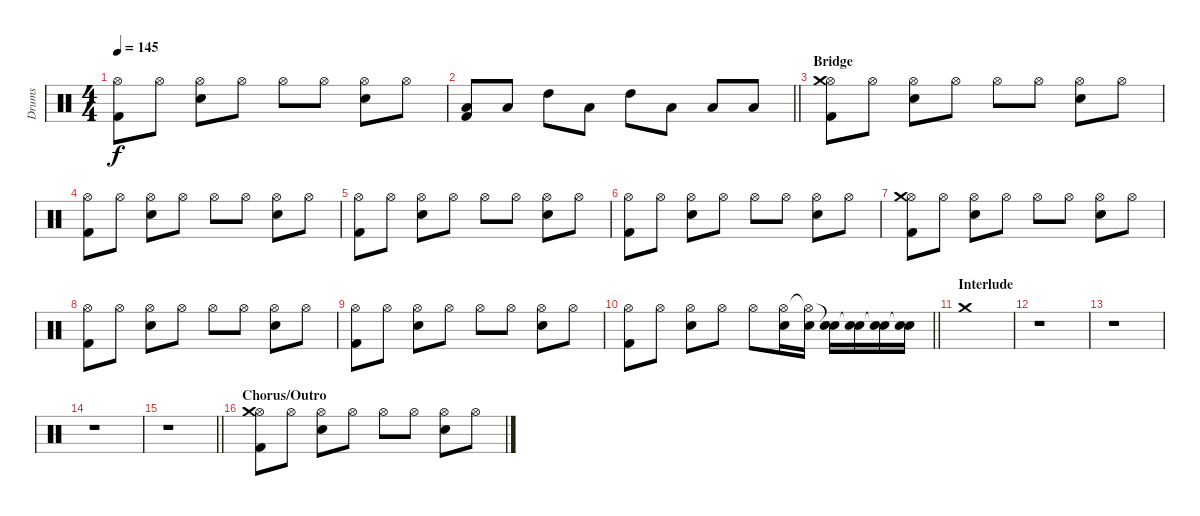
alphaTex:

\track ("Drums" "Drums") {instrument percussion}
\staff {score}
\articulation defaults
\ts (4 4)
\tempo 145
\clef neutral
\ks c
("Hi-Hat (open)" "Kick (hit) 2").8{dy f} "Hi-Hat (open)".8 ("Hi-Hat (open)" "Electric Snare (hit)").8 "Hi-Hat (open)".8 "Hi-Hat (open)".8 "Hi-Hat (open)".8 ("Hi-Hat (open)" "Electric Snare (hit)").8 "Hi-Hat (open)".8 |
\barLineRight lightlight
("Low Tom (hit)" "Kick (hit) 2").8 "Low Tom (hit)".8 "High Tom (hit)".8 "Low Tom (hit)".8 "High Tom (hit)".8 "Low Tom (hit)".8 "Low Tom (hit)".8 "Low Tom (hit)".8 |
\section ("" "Bridge")
("Hi-Hat (open)" "Kick (hit) 2" "Crash medium (hit)").8 "Hi-Hat (open)".8 ("Hi-Hat (open)" "Electric Snare (hit)").8 "Hi-Hat (open)".8 "Hi-Hat (open)".8 "Hi-Hat (open)".8 ("Hi-Hat (open)" "Electric Snare (hit)").8 "Hi-Hat (open)".8 |
("Hi-Hat (open)" "Kick (hit) 2").8 "Hi-Hat (open)".8 ("Hi-Hat (open)" "Electric Snare (hit)").8 "Hi-Hat (open)".8 "Hi-Hat (open)".8 "Hi-Hat (open)".8 ("Hi-Hat (open)" "Electric Snare (hit)").8 "Hi-Hat (open)".8 |
("Hi-Hat (open)" "Kick (hit) 2").8 "Hi-Hat (open)".8 ("Hi-Hat (open)" "Electric Snare (hit)").8 "Hi-Hat (open)".8 "Hi-Hat (open)".8 "Hi-Hat (open)".8 ("Hi-Hat (open)" "Electric Snare (hit)").8 "Hi-Hat (open)".8 |
("Hi-Hat (open)" "Kick (hit) 2").8 "Hi-Hat (open)".8 ("Hi-Hat (open)" "Electric Snare (hit)").8 "Hi-Hat (open)".8 "Hi-Hat (open)".8 "Hi-Hat (open)".8 ("Hi-Hat (open)" "Electric Snare (hit)").8 "Hi-Hat (open)".8 |
("Hi-Hat (open)" "Kick (hit) 2" "Crash medium (hit)").8 "Hi-Hat (open)".8 ("Hi-Hat (open)" "Electric Snare (hit)").8 "Hi-Hat (open)".8 "Hi-Hat (open)".8 "Hi-Hat (open)".8 ("Hi-Hat (open)" "Electric Snare (hit)").8 "Hi-Hat (open)".8 |
("Hi-Hat (open)" "Kick (hit) 2").8 "Hi-Hat (open)".8 ("Hi-Hat (open)" "Electric Snare (hit)").8 "Hi-Hat (open)".8 "Hi-Hat (open)".8 "Hi-Hat (open)".8 ("Hi-Hat (open)" "Electric Snare (hit)").8 "Hi-Hat (open)".8 |
("Hi-Hat (open)" "Kick (hit) 2").8 "Hi-Hat (open)".8 ("Hi-Hat (open)" "Electric Snare (hit)").8 "Hi-Hat (open)".8 "Hi-Hat (open)".8 "Hi-Hat (open)".8 ("Hi-Hat (open)" "Electric Snare (hit)").8 "Hi-Hat (open)".8 |
\barLineRight lightlight
("Hi-Hat (open)" "Kick (hit) 2").8 "Hi-Hat (open)".8 ("Hi-Hat (open)" "Electric Snare (hit)").8 "Hi-Hat (open)".8 "Hi-Hat (open)".8 ("Hi-Hat (open)" "Electric Snare (hit)").16 ("Hi-Hat (open)"{t} "Electric Snare (hit)").16 ("Snare (hit)"{t} "Electric Snare (hit)").16 ("Snare (hit)"{t} "Electric Snare (hit)").16 ("Snare (hit)"{t} "Electric Snare (hit)").16 ("Snare (hit)"{t} "Electric Snare (hit)").16 |
\section ("" "Interlude")
"Crash medium (hit)".1 |
r.1 |
r.1 |
r.1 |
\barLineRight lightlight
r.1 |
\section ("" "Chorus/Outro")
("Hi-Hat (open)" "Kick (hit) 2" "Crash medium (hit)").8 "Hi-Hat (open)".8 ("Hi-Hat (open)" "Electric Snare (hit)").8 "Hi-Hat (open)".8 "Hi-Hat (open)".8 "Hi-Hat (open)".8 ("Hi-Hat (open)" "Electric Snare (hit)").8 "Hi-Hat (open)".8
